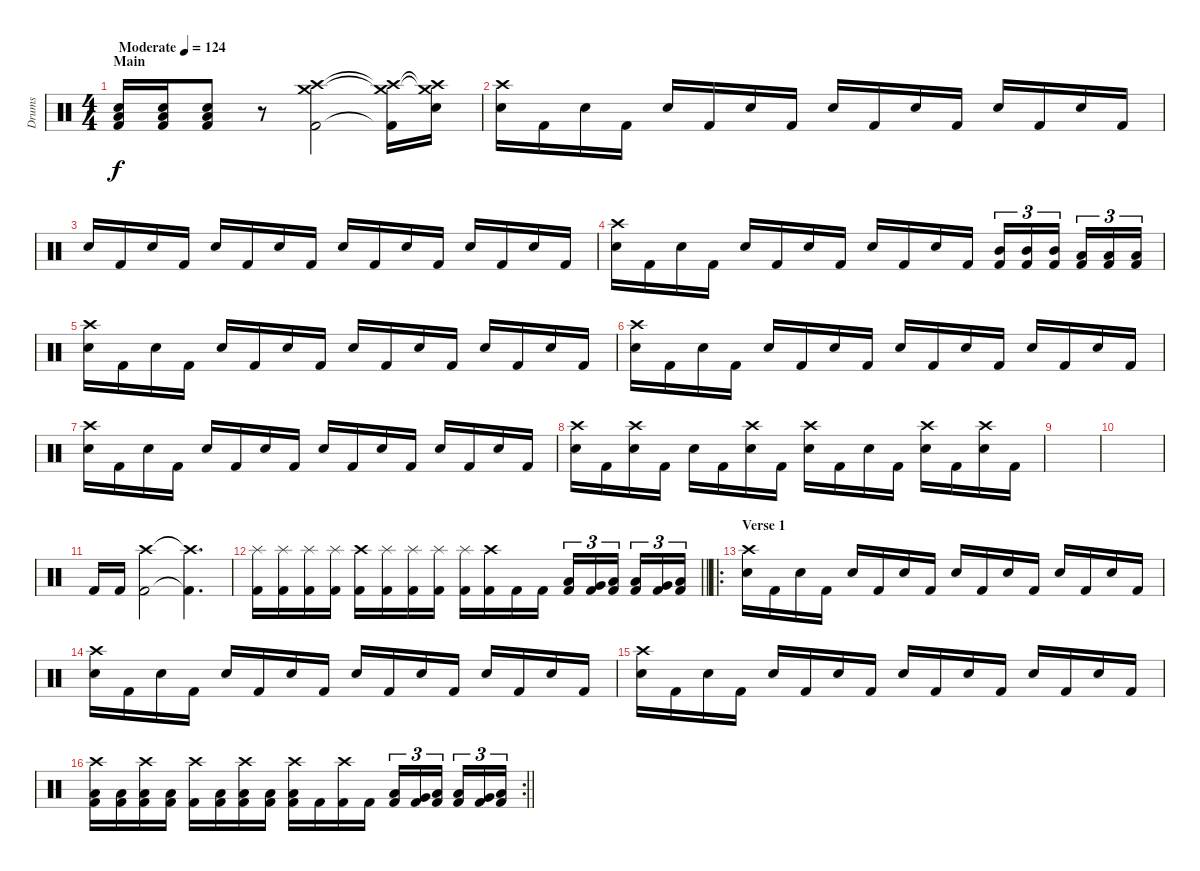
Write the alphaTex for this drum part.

\track ("Drums" "Drums") {instrument percussion}
\staff {score}
\articulation defaults
\ts (4 4)
\section ("" "Main")
\tempo (124 "Moderate")
\clef neutral
\ks c
("Electric Snare (hit)" "Low Floor Tom (hit)" "Kick (hit) 2").16{dy f} ("Electric Snare (hit)" "Low Floor Tom (hit)" "Kick (hit) 2").16 ("Electric Snare (hit)" "Low Floor Tom (hit)" "Kick (hit) 2").8 r.8 ("Crash medium (hit)" "Crash high (hit)" "Kick (hit) 2").2 ("Crash medium (hit)"{t} "Crash high (hit)"{t} "Kick (hit) 2"{t}).16 ("Crash medium (hit)"{t} "Crash high (hit)"{t} "Electric Snare (hit)").16 |
("Crash high (hit)" "Electric Snare (hit)").16 "Kick (hit) 2".16 "Electric Snare (hit)".16 "Kick (hit) 2".16 "Electric Snare (hit)".16 "Kick (hit) 2".16 "Electric Snare (hit)".16 "Kick (hit) 2".16 "Electric Snare (hit)".16 "Kick (hit) 2".16 "Electric Snare (hit)".16 "Kick (hit) 2".16 "Electric Snare (hit)".16 "Kick (hit) 2".16 "Electric Snare (hit)".16 "Kick (hit) 2".16 |
"Electric Snare (hit)".16 "Kick (hit) 2".16 "Electric Snare (hit)".16 "Kick (hit) 2".16 "Electric Snare (hit)".16 "Kick (hit) 2".16 "Electric Snare (hit)".16 "Kick (hit) 2".16 "Electric Snare (hit)".16 "Kick (hit) 2".16 "Electric Snare (hit)".16 "Kick (hit) 2".16 "Electric Snare (hit)".16 "Kick (hit) 2".16 "Electric Snare (hit)".16 "Kick (hit) 2".16 |
("Crash high (hit)" "Electric Snare (hit)").16 "Kick (hit) 2".16 "Electric Snare (hit)".16 "Kick (hit) 2".16 "Electric Snare (hit)".16 "Kick (hit) 2".16 "Electric Snare (hit)".16 "Kick (hit) 2".16 "Electric Snare (hit)".16 "Kick (hit) 2".16 "Electric Snare (hit)".16 "Kick (hit) 2".16 ("Mid Tom (hit)" "Kick (hit) 2").16{tu (3 2)} ("Mid Tom (hit)" "Kick (hit) 2").16{tu (3 2)} ("Mid Tom (hit)" "Kick (hit) 2").16{tu (3 2) beam splitsecondary} ("Low Tom (hit)" "Kick (hit) 2").16{tu (3 2)} ("Low Tom (hit)" "Kick (hit) 2").16{tu (3 2)} ("Low Tom (hit)" "Kick (hit) 2").16{tu (3 2)} |
("Crash high (hit)" "Electric Snare (hit)").16 "Kick (hit) 2".16 "Electric Snare (hit)".16 "Kick (hit) 2".16 "Electric Snare (hit)".16 "Kick (hit) 2".16 "Electric Snare (hit)".16 "Kick (hit) 2".16 "Electric Snare (hit)".16 "Kick (hit) 2".16 "Electric Snare (hit)".16 "Kick (hit) 2".16 "Electric Snare (hit)".16 "Kick (hit) 2".16 "Electric Snare (hit)".16 "Kick (hit) 2".16 |
("Crash high (hit)" "Electric Snare (hit)").16 "Kick (hit) 2".16 "Electric Snare (hit)".16 "Kick (hit) 2".16 "Electric Snare (hit)".16 "Kick (hit) 2".16 "Electric Snare (hit)".16 "Kick (hit) 2".16 "Electric Snare (hit)".16 "Kick (hit) 2".16 "Electric Snare (hit)".16 "Kick (hit) 2".16 "Electric Snare (hit)".16 "Kick (hit) 2".16 "Electric Snare (hit)".16 "Kick (hit) 2".16 |
("Crash high (hit)" "Electric Snare (hit)").16 "Kick (hit) 2".16 "Electric Snare (hit)".16 "Kick (hit) 2".16 "Electric Snare (hit)".16 "Kick (hit) 2".16 "Electric Snare (hit)".16 "Kick (hit) 2".16 "Electric Snare (hit)".16 "Kick (hit) 2".16 "Electric Snare (hit)".16 "Kick (hit) 2".16 "Electric Snare (hit)".16 "Kick (hit) 2".16 "Electric Snare (hit)".16 "Kick (hit) 2".16 |
("Crash high (hit)" "Electric Snare (hit)").16 "Kick (hit) 2".16 ("Crash high (hit)" "Electric Snare (hit)").16 "Kick (hit) 2".16 "Electric Snare (hit)".16 "Kick (hit) 2".16 ("Crash high (hit)" "Electric Snare (hit)").16 "Kick (hit) 2".16 ("Crash high (hit)" "Electric Snare (hit)").16 "Kick (hit) 2".16 "Electric Snare (hit)".16 "Kick (hit) 2".16 ("Crash high (hit)" "Electric Snare (hit)").16 "Kick (hit) 2".16 ("Crash high (hit)" "Electric Snare (hit)").16 "Kick (hit) 2".16 |
|
|
"Kick (hit) 2".16 "Kick (hit) 2".16 ("Crash high (hit)" "Kick (hit) 2").2 ("Crash high (hit)"{t} "Kick (hit) 2"{t}).4{d} |
\barLineRight lightlight
("Splash (hit)" "Kick (hit) 2").16 ("Splash (hit)" "Kick (hit) 2").16 ("Splash (hit)" "Kick (hit) 2").16 ("Splash (hit)" "Kick (hit) 2").16 ("Crash high (hit)" "Kick (hit) 2").16 ("Splash (hit)" "Kick (hit) 2").16 ("Splash (hit)" "Kick (hit) 2").16 ("Splash (hit)" "Kick (hit) 2").16 ("Splash (hit)" "Kick (hit) 2").16 ("Crash high (hit)" "Kick (hit) 2").16 "Kick (hit) 2".16 "Kick (hit) 2".16 ("Low Tom (hit)" "Kick (hit) 2").16{tu (3 2)} ("Very Low Tom (hit)" "Kick (hit) 2").16{tu (3 2)} ("Low Floor Tom (hit)" "Kick (hit) 2").16{tu (3 2) beam splitsecondary} ("Low Tom (hit)" "Kick (hit) 2").16{tu (3 2)} ("Very Low Tom (hit)" "Kick (hit) 2").16{tu (3 2)} ("Low Floor Tom (hit)" "Kick (hit) 2").16{tu (3 2)} |
\ro
\section ("" "Verse 1")
("Crash high (hit)" "Electric Snare (hit)").16 "Kick (hit) 2".16 "Electric Snare (hit)".16 "Kick (hit) 2".16 "Electric Snare (hit)".16 "Kick (hit) 2".16 "Electric Snare (hit)".16 "Kick (hit) 2".16 "Electric Snare (hit)".16 "Kick (hit) 2".16 "Electric Snare (hit)".16 "Kick (hit) 2".16 "Electric Snare (hit)".16 "Kick (hit) 2".16 "Electric Snare (hit)".16 "Kick (hit) 2".16 |
("Crash high (hit)" "Electric Snare (hit)").16 "Kick (hit) 2".16 "Electric Snare (hit)".16 "Kick (hit) 2".16 "Electric Snare (hit)".16 "Kick (hit) 2".16 "Electric Snare (hit)".16 "Kick (hit) 2".16 "Electric Snare (hit)".16 "Kick (hit) 2".16 "Electric Snare (hit)".16 "Kick (hit) 2".16 "Electric Snare (hit)".16 "Kick (hit) 2".16 "Electric Snare (hit)".16 "Kick (hit) 2".16 |
("Crash high (hit)" "Electric Snare (hit)").16 "Kick (hit) 2".16 "Electric Snare (hit)".16 "Kick (hit) 2".16 "Electric Snare (hit)".16 "Kick (hit) 2".16 "Electric Snare (hit)".16 "Kick (hit) 2".16 "Electric Snare (hit)".16 "Kick (hit) 2".16 "Electric Snare (hit)".16 "Kick (hit) 2".16 "Electric Snare (hit)".16 "Kick (hit) 2".16 "Electric Snare (hit)".16 "Kick (hit) 2".16 |
\rc 2
\barLineRight lightlight
("Crash high (hit)" "Low Floor Tom (hit)" "Kick (hit) 2").16 ("Low Floor Tom (hit)" "Kick (hit) 2").16 ("Crash high (hit)" "Low Floor Tom (hit)" "Kick (hit) 2").16 ("Low Floor Tom (hit)" "Kick (hit) 2").16 ("Crash high (hit)" "Kick (hit) 2").16 ("Low Floor Tom (hit)" "Kick (hit) 2").16 ("Crash high (hit)" "Low Floor Tom (hit)" "Kick (hit) 2").16 ("Low Floor Tom (hit)" "Kick (hit) 2").16 ("Crash high (hit)" "Low Floor Tom (hit)" "Kick (hit) 2").16 "Kick (hit) 2".16 ("Crash high (hit)" "Kick (hit) 2").16 "Kick (hit) 2".16 ("Low Tom (hit)" "Kick (hit) 2").16{tu (3 2)} ("Very Low Tom (hit)" "Kick (hit) 2").16{tu (3 2)} ("Low Floor Tom (hit)" "Kick (hit) 2").16{tu (3 2) beam splitsecondary} ("Low Tom (hit)" "Kick (hit) 2").16{tu (3 2)} ("Very Low Tom (hit)" "Kick (hit) 2").16{tu (3 2)} ("Low Floor Tom (hit)" "Kick (hit) 2").16{tu (3 2)}
